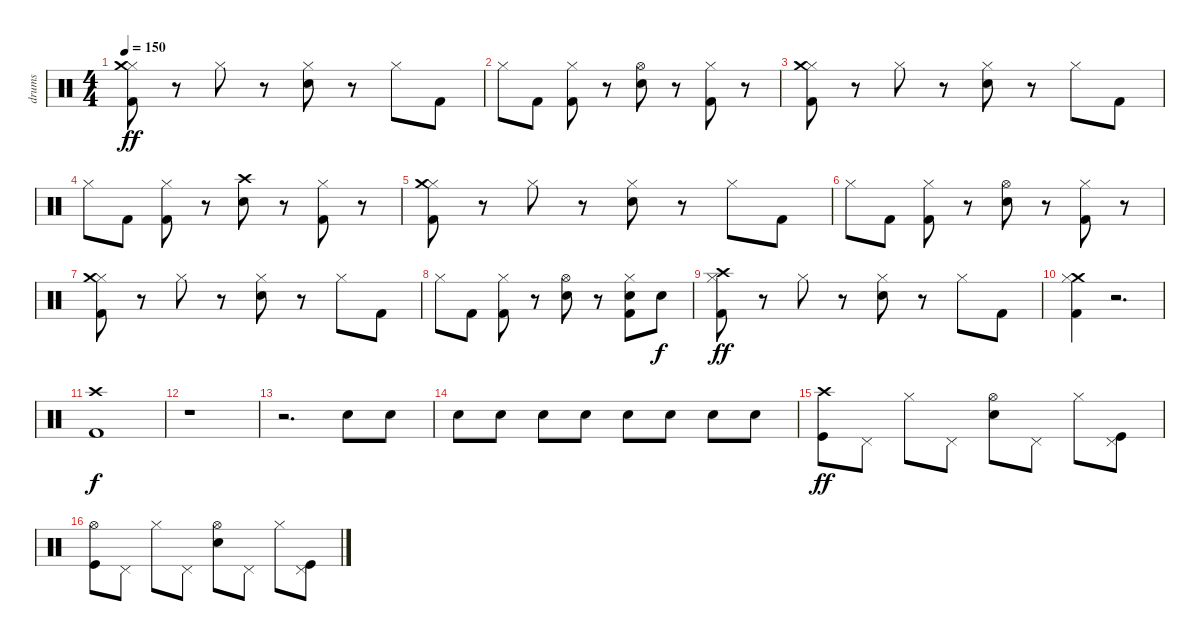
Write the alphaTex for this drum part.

\track ("drums" "drums") {instrument percussion}
\staff {score}
\articulation defaults
\ts (4 4)
\tempo 150
\clef neutral
\ks c
("Hi-Hat (closed)" "Kick (hit) 2" "Crash medium (hit)").8{dy ff} r.8 "Hi-Hat (closed)".8 r.8 ("Hi-Hat (closed)" "Electric Snare (hit)").8 r.8 "Hi-Hat (closed)".8 "Kick (hit) 2".8 |
"Hi-Hat (closed)".8 "Kick (hit) 2".8 ("Hi-Hat (closed)" "Kick (hit) 2").8 r.8 ("Hi-Hat (open)" "Electric Snare (hit)").8 r.8 ("Kick (hit) 2" "Hi-Hat (closed)").8 r.8 |
("Hi-Hat (closed)" "Kick (hit) 2" "Crash medium (hit)").8 r.8 "Hi-Hat (closed)".8 r.8 ("Hi-Hat (closed)" "Electric Snare (hit)").8 r.8 "Hi-Hat (closed)".8 "Kick (hit) 2".8 |
"Hi-Hat (closed)".8 "Kick (hit) 2".8 ("Hi-Hat (closed)" "Kick (hit) 2").8 r.8 ("Crash high (hit)" "Electric Snare (hit)").8 r.8 ("Kick (hit) 2" "Hi-Hat (closed)").8 r.8 |
("Hi-Hat (closed)" "Kick (hit) 2" "Crash medium (hit)").8 r.8 "Hi-Hat (closed)".8 r.8 ("Hi-Hat (closed)" "Electric Snare (hit)").8 r.8 "Hi-Hat (closed)".8 "Kick (hit) 2".8 |
"Hi-Hat (closed)".8 "Kick (hit) 2".8 ("Hi-Hat (closed)" "Kick (hit) 2").8 r.8 ("Hi-Hat (open)" "Electric Snare (hit)").8 r.8 ("Kick (hit) 2" "Hi-Hat (closed)").8 r.8 |
("Hi-Hat (closed)" "Kick (hit) 2" "Crash medium (hit)").8 r.8 "Hi-Hat (closed)".8 r.8 ("Hi-Hat (closed)" "Electric Snare (hit)").8 r.8 "Hi-Hat (closed)".8 "Kick (hit) 2".8 |
"Hi-Hat (closed)".8 "Kick (hit) 2".8 ("Hi-Hat (closed)" "Kick (hit) 2").8 r.8 ("Hi-Hat (open)" "Electric Snare (hit)").8 r.8 ("Snare (hit) 2" "Kick (hit) 2" "Hi-Hat (closed)").8 "Electric Snare (hit)".8{dy f} |
("Hi-Hat (closed)" "Kick (hit) 2" "Crash high (hit)").8{dy ff} r.8 "Hi-Hat (closed)".8 r.8 ("Hi-Hat (closed)" "Electric Snare (hit)").8 r.8 "Hi-Hat (closed)".8 "Kick (hit) 2".8 |
("Crash medium (hit)" "Kick (hit) 2" "Hi-Hat (closed)").4 r.2{d} |
("Crash high (hit)" "Kick (hit) 2").1{dy f} |
r.1 |
r.2{d} "Electric Snare (hit)".8 "Electric Snare (hit)".8 |
"Electric Snare (hit)".8 "Electric Snare (hit)".8 "Electric Snare (hit)".8 "Electric Snare (hit)".8 "Electric Snare (hit)".8 "Electric Snare (hit)".8 "Electric Snare (hit)".8 "Electric Snare (hit)".8 |
("Crash high (hit)" "Kick (hit)").8{dy ff} "Pedal Hi-Hat (hit)".8 "Hi-Hat (closed)".8 "Pedal Hi-Hat (hit)".8 ("Hi-Hat (open)" "Electric Snare (hit)").8 "Pedal Hi-Hat (hit)".8 "Hi-Hat (closed)".8 ("Pedal Hi-Hat (hit)" "Kick (hit)").8 |
("Hi-Hat (open)" "Kick (hit)").8 "Pedal Hi-Hat (hit)".8 "Hi-Hat (closed)".8 "Pedal Hi-Hat (hit)".8 ("Hi-Hat (open)" "Electric Snare (hit)").8 "Pedal Hi-Hat (hit)".8 "Hi-Hat (closed)".8 ("Pedal Hi-Hat (hit)" "Kick (hit)").8
